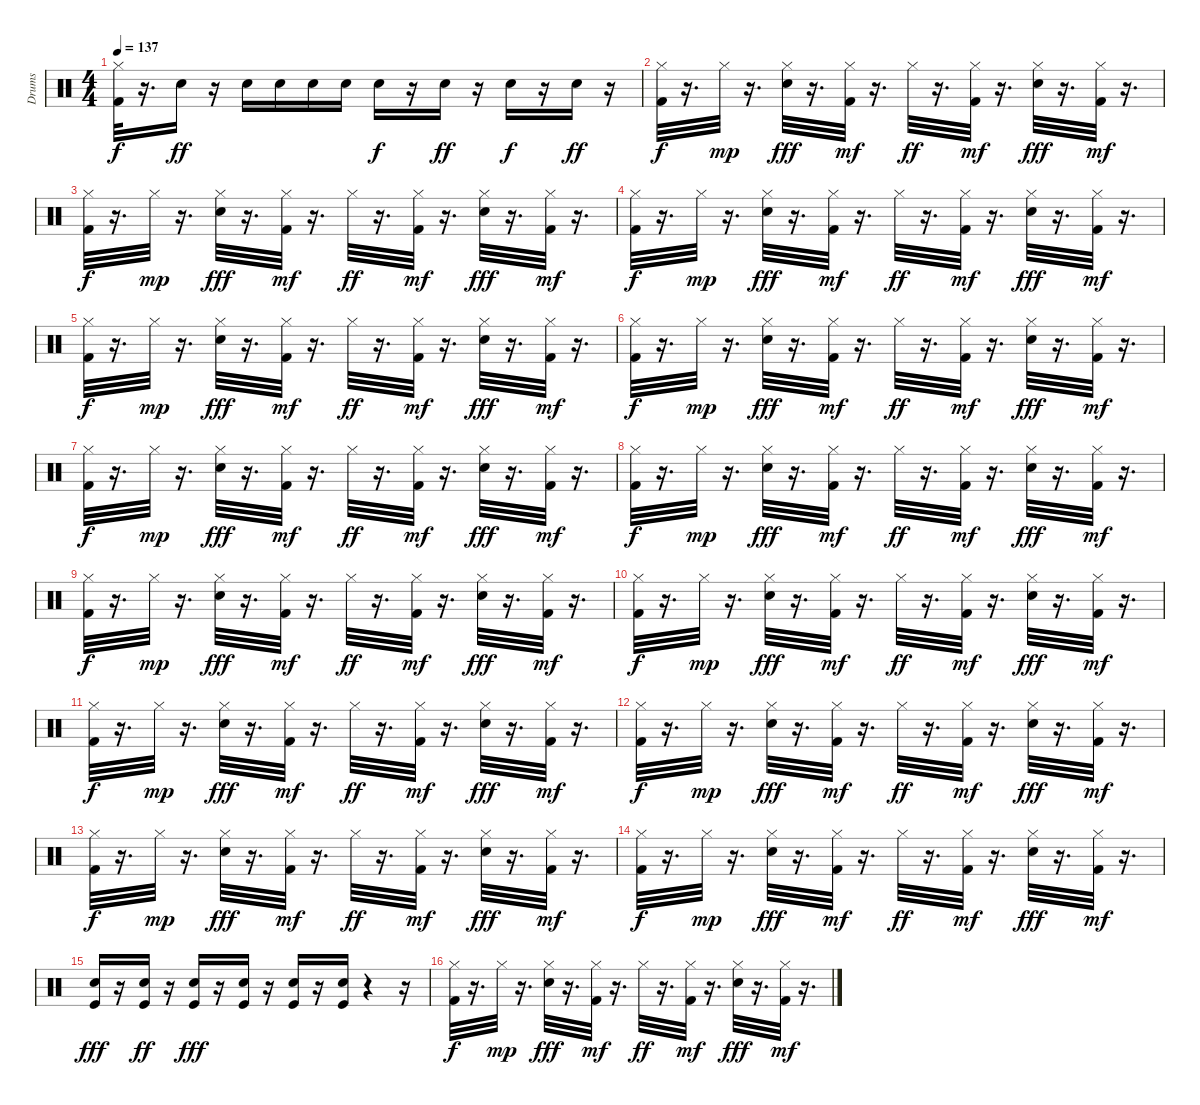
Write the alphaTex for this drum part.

\track ("Drums" "Drums") {instrument percussion}
\staff {score}
\articulation defaults
\ts (4 4)
\tempo 137
\clef neutral
\ks c
("Hi-Hat (closed)" "Kick (hit) 2").32{dy f} r.16{d} "Snare (hit) 2".16{dy ff} r.16 "Snare (hit) 2".16 "Snare (hit) 2".16 "Snare (hit) 2".16 "Snare (hit) 2".16 "Electric Snare (hit)".16{dy f} r.16 "Electric Snare (hit)".16{dy ff} r.16 "Snare (hit) 2".16{dy f} r.16 "Snare (hit) 2".16{dy ff} r.16 |
("Hi-Hat (closed)" "Kick (hit) 2").32{dy f} r.16{d} "Hi-Hat (closed)".32{dy mp} r.16{d} ("Hi-Hat (closed)" "Snare (hit) 2").32{dy fff} r.16{d} ("Hi-Hat (closed)" "Kick (hit) 2").32{dy mf} r.16{d} "Hi-Hat (closed)".32{dy ff} r.16{d} ("Hi-Hat (closed)" "Kick (hit) 2").32{dy mf} r.16{d} ("Hi-Hat (closed)" "Snare (hit) 2").32{dy fff} r.16{d} ("Hi-Hat (closed)" "Kick (hit) 2").32{dy mf} r.16{d} |
("Hi-Hat (closed)" "Kick (hit) 2").32{dy f} r.16{d} "Hi-Hat (closed)".32{dy mp} r.16{d} ("Hi-Hat (closed)" "Snare (hit) 2").32{dy fff} r.16{d} ("Hi-Hat (closed)" "Kick (hit) 2").32{dy mf} r.16{d} "Hi-Hat (closed)".32{dy ff} r.16{d} ("Hi-Hat (closed)" "Kick (hit) 2").32{dy mf} r.16{d} ("Hi-Hat (closed)" "Snare (hit) 2").32{dy fff} r.16{d} ("Hi-Hat (closed)" "Kick (hit) 2").32{dy mf} r.16{d} |
("Hi-Hat (closed)" "Kick (hit) 2").32{dy f} r.16{d} "Hi-Hat (closed)".32{dy mp} r.16{d} ("Hi-Hat (closed)" "Snare (hit) 2").32{dy fff} r.16{d} ("Hi-Hat (closed)" "Kick (hit) 2").32{dy mf} r.16{d} "Hi-Hat (closed)".32{dy ff} r.16{d} ("Hi-Hat (closed)" "Kick (hit) 2").32{dy mf} r.16{d} ("Hi-Hat (closed)" "Snare (hit) 2").32{dy fff} r.16{d} ("Hi-Hat (closed)" "Kick (hit) 2").32{dy mf} r.16{d} |
("Hi-Hat (closed)" "Kick (hit) 2").32{dy f} r.16{d} "Hi-Hat (closed)".32{dy mp} r.16{d} ("Hi-Hat (closed)" "Snare (hit) 2").32{dy fff} r.16{d} ("Hi-Hat (closed)" "Kick (hit) 2").32{dy mf} r.16{d} "Hi-Hat (closed)".32{dy ff} r.16{d} ("Hi-Hat (closed)" "Kick (hit) 2").32{dy mf} r.16{d} ("Hi-Hat (closed)" "Snare (hit) 2").32{dy fff} r.16{d} ("Hi-Hat (closed)" "Kick (hit) 2").32{dy mf} r.16{d} |
("Hi-Hat (closed)" "Kick (hit) 2").32{dy f} r.16{d} "Hi-Hat (closed)".32{dy mp} r.16{d} ("Hi-Hat (closed)" "Snare (hit) 2").32{dy fff} r.16{d} ("Hi-Hat (closed)" "Kick (hit) 2").32{dy mf} r.16{d} "Hi-Hat (closed)".32{dy ff} r.16{d} ("Hi-Hat (closed)" "Kick (hit) 2").32{dy mf} r.16{d} ("Hi-Hat (closed)" "Snare (hit) 2").32{dy fff} r.16{d} ("Hi-Hat (closed)" "Kick (hit) 2").32{dy mf} r.16{d} |
("Hi-Hat (closed)" "Kick (hit) 2").32{dy f} r.16{d} "Hi-Hat (closed)".32{dy mp} r.16{d} ("Hi-Hat (closed)" "Snare (hit) 2").32{dy fff} r.16{d} ("Hi-Hat (closed)" "Kick (hit) 2").32{dy mf} r.16{d} "Hi-Hat (closed)".32{dy ff} r.16{d} ("Hi-Hat (closed)" "Kick (hit) 2").32{dy mf} r.16{d} ("Hi-Hat (closed)" "Snare (hit) 2").32{dy fff} r.16{d} ("Hi-Hat (closed)" "Kick (hit) 2").32{dy mf} r.16{d} |
("Hi-Hat (closed)" "Kick (hit) 2").32{dy f} r.16{d} "Hi-Hat (closed)".32{dy mp} r.16{d} ("Hi-Hat (closed)" "Snare (hit) 2").32{dy fff} r.16{d} ("Hi-Hat (closed)" "Kick (hit) 2").32{dy mf} r.16{d} "Hi-Hat (closed)".32{dy ff} r.16{d} ("Hi-Hat (closed)" "Kick (hit) 2").32{dy mf} r.16{d} ("Hi-Hat (closed)" "Snare (hit) 2").32{dy fff} r.16{d} ("Hi-Hat (closed)" "Kick (hit) 2").32{dy mf} r.16{d} |
("Hi-Hat (closed)" "Kick (hit) 2").32{dy f} r.16{d} "Hi-Hat (closed)".32{dy mp} r.16{d} ("Hi-Hat (closed)" "Snare (hit) 2").32{dy fff} r.16{d} ("Hi-Hat (closed)" "Kick (hit) 2").32{dy mf} r.16{d} "Hi-Hat (closed)".32{dy ff} r.16{d} ("Hi-Hat (closed)" "Kick (hit) 2").32{dy mf} r.16{d} ("Hi-Hat (closed)" "Snare (hit) 2").32{dy fff} r.16{d} ("Hi-Hat (closed)" "Kick (hit) 2").32{dy mf} r.16{d} |
("Hi-Hat (closed)" "Kick (hit) 2").32{dy f} r.16{d} "Hi-Hat (closed)".32{dy mp} r.16{d} ("Hi-Hat (closed)" "Snare (hit) 2").32{dy fff} r.16{d} ("Hi-Hat (closed)" "Kick (hit) 2").32{dy mf} r.16{d} "Hi-Hat (closed)".32{dy ff} r.16{d} ("Hi-Hat (closed)" "Kick (hit) 2").32{dy mf} r.16{d} ("Hi-Hat (closed)" "Snare (hit) 2").32{dy fff} r.16{d} ("Hi-Hat (closed)" "Kick (hit) 2").32{dy mf} r.16{d} |
("Hi-Hat (closed)" "Kick (hit) 2").32{dy f} r.16{d} "Hi-Hat (closed)".32{dy mp} r.16{d} ("Hi-Hat (closed)" "Snare (hit) 2").32{dy fff} r.16{d} ("Hi-Hat (closed)" "Kick (hit) 2").32{dy mf} r.16{d} "Hi-Hat (closed)".32{dy ff} r.16{d} ("Hi-Hat (closed)" "Kick (hit) 2").32{dy mf} r.16{d} ("Hi-Hat (closed)" "Snare (hit) 2").32{dy fff} r.16{d} ("Hi-Hat (closed)" "Kick (hit) 2").32{dy mf} r.16{d} |
("Hi-Hat (closed)" "Kick (hit) 2").32{dy f} r.16{d} "Hi-Hat (closed)".32{dy mp} r.16{d} ("Hi-Hat (closed)" "Snare (hit) 2").32{dy fff} r.16{d} ("Hi-Hat (closed)" "Kick (hit) 2").32{dy mf} r.16{d} "Hi-Hat (closed)".32{dy ff} r.16{d} ("Hi-Hat (closed)" "Kick (hit) 2").32{dy mf} r.16{d} ("Hi-Hat (closed)" "Snare (hit) 2").32{dy fff} r.16{d} ("Hi-Hat (closed)" "Kick (hit) 2").32{dy mf} r.16{d} |
("Hi-Hat (closed)" "Kick (hit) 2").32{dy f} r.16{d} "Hi-Hat (closed)".32{dy mp} r.16{d} ("Hi-Hat (closed)" "Snare (hit) 2").32{dy fff} r.16{d} ("Hi-Hat (closed)" "Kick (hit) 2").32{dy mf} r.16{d} "Hi-Hat (closed)".32{dy ff} r.16{d} ("Hi-Hat (closed)" "Kick (hit) 2").32{dy mf} r.16{d} ("Hi-Hat (closed)" "Snare (hit) 2").32{dy fff} r.16{d} ("Hi-Hat (closed)" "Kick (hit) 2").32{dy mf} r.16{d} |
("Hi-Hat (closed)" "Kick (hit) 2").32{dy f} r.16{d} "Hi-Hat (closed)".32{dy mp} r.16{d} ("Hi-Hat (closed)" "Snare (hit) 2").32{dy fff} r.16{d} ("Hi-Hat (closed)" "Kick (hit) 2").32{dy mf} r.16{d} "Hi-Hat (closed)".32{dy ff} r.16{d} ("Hi-Hat (closed)" "Kick (hit) 2").32{dy mf} r.16{d} ("Hi-Hat (closed)" "Snare (hit) 2").32{dy fff} r.16{d} ("Hi-Hat (closed)" "Kick (hit) 2").32{dy mf} r.16{d} |
("Kick (hit)" "Snare (hit) 2").16{dy fff} r.16 ("Kick (hit)" "Snare (hit) 2").16{dy ff} r.16 ("Kick (hit)" "Snare (hit) 2").16{dy fff} r.16 ("Kick (hit)" "Snare (hit) 2").16 r.16 ("Kick (hit)" "Snare (hit) 2").16 r.16 ("Snare (hit) 2" "Kick (hit)").16 r.4 r.16 |
("Hi-Hat (closed)" "Kick (hit) 2").32{dy f} r.16{d} "Hi-Hat (closed)".32{dy mp} r.16{d} ("Hi-Hat (closed)" "Snare (hit) 2").32{dy fff} r.16{d} ("Hi-Hat (closed)" "Kick (hit) 2").32{dy mf} r.16{d} "Hi-Hat (closed)".32{dy ff} r.16{d} ("Hi-Hat (closed)" "Kick (hit) 2").32{dy mf} r.16{d} ("Hi-Hat (closed)" "Snare (hit) 2").32{dy fff} r.16{d} ("Hi-Hat (closed)" "Kick (hit) 2").32{dy mf} r.16{d}
